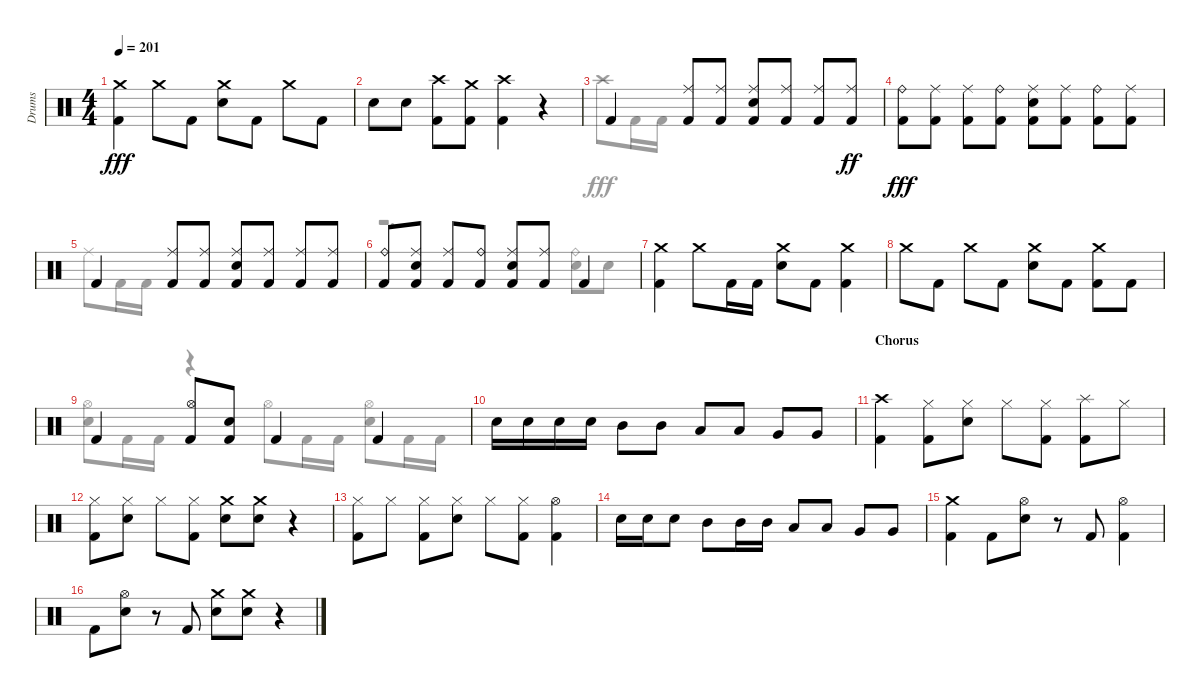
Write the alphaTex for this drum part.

\track ("Drums" "Drums") {instrument percussion}
\staff {score}
\articulation defaults
\voice
\ts (4 4)
\tempo 201
\clef neutral
\ks aminor
("Kick (hit) 2" "Crash medium (hit)").4{dy fff} "Crash medium (hit)".8 "Kick (hit) 2".8 ("Snare (hit) 2" "Crash medium (hit)").8 "Kick (hit) 2".8 "Crash medium (hit)".8 "Kick (hit) 2".8 |
"Snare (hit) 2".8 "Snare (hit) 2".8 ("Kick (hit) 2" "Crash high (hit)").8 ("Crash medium (hit)" "Kick (hit) 2").8 ("Crash high (hit)" "Kick (hit) 2").4 r.4 |
"Kick (hit) 2".4 ("Kick (hit) 2" "Ride (middle)").8 ("Kick (hit) 2" "Ride (middle)").8 ("Snare (hit) 2" "Ride (middle)" "Kick (hit) 2").8 ("Kick (hit) 2" "Ride (middle)").8 ("Ride (middle)" "Kick (hit) 2").8 ("Ride (middle)" "Kick (hit) 2").8{dy ff} |
("Ride (bell)" "Kick (hit) 2").8{dy fff} ("Ride (middle)" "Kick (hit) 2").8 ("Kick (hit) 2" "Ride (middle)").8 ("Ride (bell)" "Kick (hit) 2").8 ("Kick (hit) 2" "Ride (middle)" "Snare (hit) 2").8 ("Ride (middle)" "Kick (hit) 2").8 ("Kick (hit) 2" "Ride (bell)").8 ("Kick (hit) 2" "Ride (middle)").8 |
"Kick (hit) 2".4 ("Ride (middle)" "Kick (hit) 2").8 ("Ride (middle)" "Kick (hit) 2").8 ("Kick (hit) 2" "Snare (hit) 2" "Ride (middle)").8 ("Kick (hit) 2" "Ride (middle)").8 ("Kick (hit) 2" "Ride (middle)").8 ("Kick (hit) 2" "Ride (middle)").8 |
("Kick (hit) 2" "Ride (bell)").8 ("Snare (hit) 2" "Kick (hit) 2" "Ride (middle)").8 ("Kick (hit) 2" "Ride (middle)").8 ("Kick (hit) 2" "Ride (bell)").8 ("Kick (hit) 2" "Ride (middle)" "Snare (hit) 2").8 ("Ride (middle)" "Kick (hit) 2").8 "Kick (hit) 2".4 |
("Crash medium (hit)" "Kick (hit) 2").4 "Crash medium (hit)".8 "Kick (hit) 2".16 "Kick (hit) 2".16 ("Snare (hit) 2" "Crash medium (hit)").8 "Kick (hit) 2".8 ("Kick (hit) 2" "Crash medium (hit)").4 |
"Crash medium (hit)".8 "Kick (hit) 2".8 "Crash medium (hit)".8 "Kick (hit) 2".8 ("Crash medium (hit)" "Snare (hit) 2").8 "Kick (hit) 2".8 ("Kick (hit) 2" "Crash medium (hit)").8 "Kick (hit) 2".8 |
"Kick (hit) 2".4 ("Kick (hit) 2" "Hi-Hat (open)").8 ("Kick (hit) 2" "Snare (hit) 2").8 "Kick (hit) 2".4 "Kick (hit) 2".4 |
"Snare (hit) 2".16 "Snare (hit) 2".16 "Snare (hit) 2".16 "Snare (hit) 2".16 "Mid Tom (hit)".8 "Mid Tom (hit)".8 "Low Tom (hit)".8 "Low Tom (hit)".8 "Very Low Tom (hit)".8 "Very Low Tom (hit)".8 |
\section ("" "Chorus")
("Kick (hit) 2" "Crash high (hit)").4 ("Hi-Hat (closed)" "Kick (hit) 2").8 ("Snare (hit) 2" "Hi-Hat (closed)").8 "Hi-Hat (closed)".8 ("Kick (hit) 2" "Hi-Hat (closed)").8 ("Kick (hit) 2" "Splash (hit)").8 "Hi-Hat (closed)".8 |
("Kick (hit) 2" "Hi-Hat (closed)").8 ("Snare (hit) 2" "Hi-Hat (closed)").8 "Hi-Hat (closed)".8 ("Kick (hit) 2" "Hi-Hat (closed)").8 ("Crash medium (hit)" "Snare (hit) 2").8 ("Snare (hit) 2" "Crash medium (hit)").8 r.4 |
("Hi-Hat (closed)" "Kick (hit) 2").8 "Hi-Hat (closed)".8 ("Hi-Hat (closed)" "Kick (hit) 2").8 ("Hi-Hat (closed)" "Snare (hit) 2").8 "Hi-Hat (closed)".8 ("Hi-Hat (closed)" "Kick (hit) 2").8 ("Kick (hit) 2" "Hi-Hat (open)").4 |
"Snare (hit) 2".16 "Snare (hit) 2".16 "Snare (hit) 2".8 "Mid Tom (hit)".8 "Mid Tom (hit)".16 "Mid Tom (hit)".16 "Low Tom (hit)".8 "Low Tom (hit)".8 "Very Low Tom (hit)".8 "Very Low Tom (hit)".8 |
("Kick (hit) 2" "Crash medium (hit)").4 "Kick (hit) 2".8 ("Hi-Hat (open)" "Snare (hit) 2").8 r.8 "Kick (hit) 2".8 ("Hi-Hat (open)" "Kick (hit) 2").4 |
"Kick (hit) 2".8 ("Hi-Hat (open)" "Snare (hit) 2").8 r.8 "Kick (hit) 2".8 ("Snare (hit) 2" "Crash medium (hit)").8 ("Crash medium (hit)" "Snare (hit) 2").8 r.4
\voice
\clef neutral
\ottava regular
\simile none
\ks aminor
|
|
"Crash high (hit)".8 "Kick (hit) 2".16 "Kick (hit) 2".16 |
|
"Ride (middle)".8 "Kick (hit) 2".16 "Kick (hit) 2".16 |
r.2{d} ("Snare (hit) 2" "Ride (bell)").8 "Snare (hit) 2".8 |
|
|
("Hi-Hat (open)" "Snare (hit) 2").8 "Kick (hit) 2".16 "Kick (hit) 2".16 r.4 "Hi-Hat (open)".8 "Kick (hit) 2".16 "Kick (hit) 2".16 ("Snare (hit) 2" "Hi-Hat (open)").8 "Kick (hit) 2".16 "Kick (hit) 2".16 |
|
|
|
|
|
|
